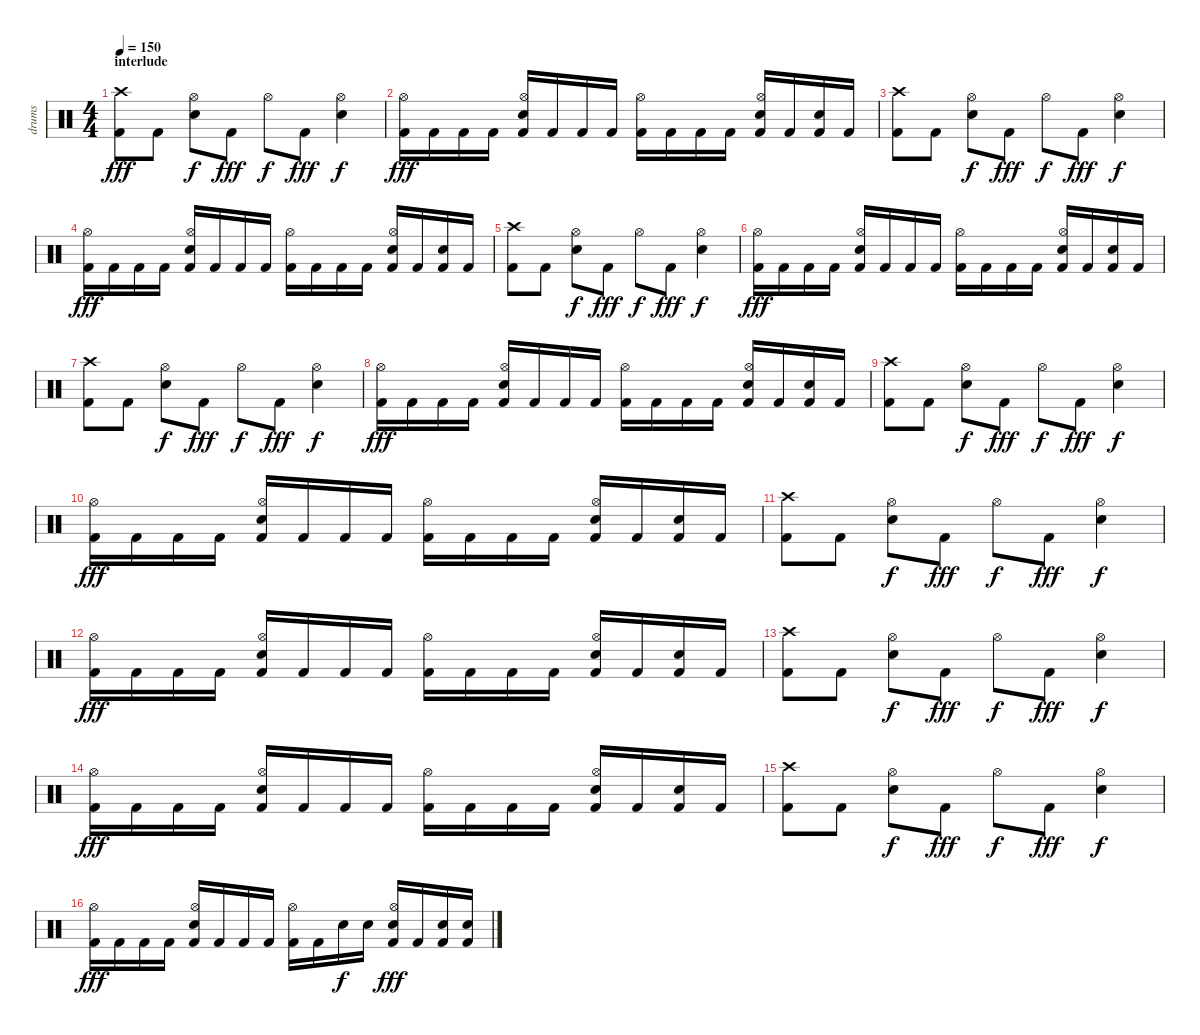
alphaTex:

\track ("drums" "drums") {instrument percussion}
\staff {score}
\articulation defaults
\ts (4 4)
\section ("" "interlude")
\tempo 150
\clef neutral
\ks c
("Crash high (hit)" "Kick (hit) 2").8{dy fff} "Kick (hit) 2".8 ("Hi-Hat (open)" "Snare (hit) 2").8{dy f} "Kick (hit) 2".8{dy fff} "Hi-Hat (open)".8{dy f} "Kick (hit) 2".8{dy fff} ("Hi-Hat (open)" "Snare (hit) 2").4{dy f} |
("Hi-Hat (open)" "Kick (hit) 2").16{dy fff} "Kick (hit) 2".16 "Kick (hit) 2".16 "Kick (hit) 2".16 ("Hi-Hat (open)" "Snare (hit) 2" "Kick (hit) 2").16 "Kick (hit) 2".16 "Kick (hit) 2".16 "Kick (hit) 2".16 ("Hi-Hat (open)" "Kick (hit) 2").16 "Kick (hit) 2".16 "Kick (hit) 2".16 "Kick (hit) 2".16 ("Hi-Hat (open)" "Snare (hit) 2" "Kick (hit) 2").16 "Kick (hit) 2".16 ("Snare (hit) 2" "Kick (hit) 2").16 "Kick (hit) 2".16 |
("Crash high (hit)" "Kick (hit) 2").8 "Kick (hit) 2".8 ("Hi-Hat (open)" "Snare (hit) 2").8{dy f} "Kick (hit) 2".8{dy fff} "Hi-Hat (open)".8{dy f} "Kick (hit) 2".8{dy fff} ("Hi-Hat (open)" "Snare (hit) 2").4{dy f} |
("Hi-Hat (open)" "Kick (hit) 2").16{dy fff} "Kick (hit) 2".16 "Kick (hit) 2".16 "Kick (hit) 2".16 ("Hi-Hat (open)" "Snare (hit) 2" "Kick (hit) 2").16 "Kick (hit) 2".16 "Kick (hit) 2".16 "Kick (hit) 2".16 ("Hi-Hat (open)" "Kick (hit) 2").16 "Kick (hit) 2".16 "Kick (hit) 2".16 "Kick (hit) 2".16 ("Hi-Hat (open)" "Snare (hit) 2" "Kick (hit) 2").16 "Kick (hit) 2".16 ("Snare (hit) 2" "Kick (hit) 2").16 "Kick (hit) 2".16 |
("Crash high (hit)" "Kick (hit) 2").8 "Kick (hit) 2".8 ("Hi-Hat (open)" "Snare (hit) 2").8{dy f} "Kick (hit) 2".8{dy fff} "Hi-Hat (open)".8{dy f} "Kick (hit) 2".8{dy fff} ("Hi-Hat (open)" "Snare (hit) 2").4{dy f} |
("Hi-Hat (open)" "Kick (hit) 2").16{dy fff} "Kick (hit) 2".16 "Kick (hit) 2".16 "Kick (hit) 2".16 ("Hi-Hat (open)" "Snare (hit) 2" "Kick (hit) 2").16 "Kick (hit) 2".16 "Kick (hit) 2".16 "Kick (hit) 2".16 ("Hi-Hat (open)" "Kick (hit) 2").16 "Kick (hit) 2".16 "Kick (hit) 2".16 "Kick (hit) 2".16 ("Hi-Hat (open)" "Snare (hit) 2" "Kick (hit) 2").16 "Kick (hit) 2".16 ("Snare (hit) 2" "Kick (hit) 2").16 "Kick (hit) 2".16 |
("Crash high (hit)" "Kick (hit) 2").8 "Kick (hit) 2".8 ("Hi-Hat (open)" "Snare (hit) 2").8{dy f} "Kick (hit) 2".8{dy fff} "Hi-Hat (open)".8{dy f} "Kick (hit) 2".8{dy fff} ("Hi-Hat (open)" "Snare (hit) 2").4{dy f} |
("Hi-Hat (open)" "Kick (hit) 2").16{dy fff} "Kick (hit) 2".16 "Kick (hit) 2".16 "Kick (hit) 2".16 ("Hi-Hat (open)" "Snare (hit) 2" "Kick (hit) 2").16 "Kick (hit) 2".16 "Kick (hit) 2".16 "Kick (hit) 2".16 ("Hi-Hat (open)" "Kick (hit) 2").16 "Kick (hit) 2".16 "Kick (hit) 2".16 "Kick (hit) 2".16 ("Hi-Hat (open)" "Snare (hit) 2" "Kick (hit) 2").16 "Kick (hit) 2".16 ("Snare (hit) 2" "Kick (hit) 2").16 "Kick (hit) 2".16 |
("Crash high (hit)" "Kick (hit) 2").8 "Kick (hit) 2".8 ("Hi-Hat (open)" "Snare (hit) 2").8{dy f} "Kick (hit) 2".8{dy fff} "Hi-Hat (open)".8{dy f} "Kick (hit) 2".8{dy fff} ("Hi-Hat (open)" "Snare (hit) 2").4{dy f} |
("Hi-Hat (open)" "Kick (hit) 2").16{dy fff} "Kick (hit) 2".16 "Kick (hit) 2".16 "Kick (hit) 2".16 ("Hi-Hat (open)" "Snare (hit) 2" "Kick (hit) 2").16 "Kick (hit) 2".16 "Kick (hit) 2".16 "Kick (hit) 2".16 ("Hi-Hat (open)" "Kick (hit) 2").16 "Kick (hit) 2".16 "Kick (hit) 2".16 "Kick (hit) 2".16 ("Hi-Hat (open)" "Snare (hit) 2" "Kick (hit) 2").16 "Kick (hit) 2".16 ("Snare (hit) 2" "Kick (hit) 2").16 "Kick (hit) 2".16 |
("Crash high (hit)" "Kick (hit) 2").8 "Kick (hit) 2".8 ("Hi-Hat (open)" "Snare (hit) 2").8{dy f} "Kick (hit) 2".8{dy fff} "Hi-Hat (open)".8{dy f} "Kick (hit) 2".8{dy fff} ("Hi-Hat (open)" "Snare (hit) 2").4{dy f} |
("Hi-Hat (open)" "Kick (hit) 2").16{dy fff} "Kick (hit) 2".16 "Kick (hit) 2".16 "Kick (hit) 2".16 ("Hi-Hat (open)" "Snare (hit) 2" "Kick (hit) 2").16 "Kick (hit) 2".16 "Kick (hit) 2".16 "Kick (hit) 2".16 ("Hi-Hat (open)" "Kick (hit) 2").16 "Kick (hit) 2".16 "Kick (hit) 2".16 "Kick (hit) 2".16 ("Hi-Hat (open)" "Snare (hit) 2" "Kick (hit) 2").16 "Kick (hit) 2".16 ("Snare (hit) 2" "Kick (hit) 2").16 "Kick (hit) 2".16 |
("Crash high (hit)" "Kick (hit) 2").8 "Kick (hit) 2".8 ("Hi-Hat (open)" "Snare (hit) 2").8{dy f} "Kick (hit) 2".8{dy fff} "Hi-Hat (open)".8{dy f} "Kick (hit) 2".8{dy fff} ("Hi-Hat (open)" "Snare (hit) 2").4{dy f} |
("Hi-Hat (open)" "Kick (hit) 2").16{dy fff} "Kick (hit) 2".16 "Kick (hit) 2".16 "Kick (hit) 2".16 ("Hi-Hat (open)" "Snare (hit) 2" "Kick (hit) 2").16 "Kick (hit) 2".16 "Kick (hit) 2".16 "Kick (hit) 2".16 ("Hi-Hat (open)" "Kick (hit) 2").16 "Kick (hit) 2".16 "Kick (hit) 2".16 "Kick (hit) 2".16 ("Hi-Hat (open)" "Snare (hit) 2" "Kick (hit) 2").16 "Kick (hit) 2".16 ("Snare (hit) 2" "Kick (hit) 2").16 "Kick (hit) 2".16 |
("Crash high (hit)" "Kick (hit) 2").8 "Kick (hit) 2".8 ("Hi-Hat (open)" "Snare (hit) 2").8{dy f} "Kick (hit) 2".8{dy fff} "Hi-Hat (open)".8{dy f} "Kick (hit) 2".8{dy fff} ("Hi-Hat (open)" "Snare (hit) 2").4{dy f} |
("Hi-Hat (open)" "Kick (hit) 2").16{dy fff} "Kick (hit) 2".16 "Kick (hit) 2".16 "Kick (hit) 2".16 ("Hi-Hat (open)" "Snare (hit) 2" "Kick (hit) 2").16 "Kick (hit) 2".16 "Kick (hit) 2".16 "Kick (hit) 2".16 ("Hi-Hat (open)" "Kick (hit) 2").16 "Kick (hit) 2".16 "Snare (hit) 2".16{dy f} "Snare (hit) 2".16 ("Hi-Hat (open)" "Snare (hit) 2" "Kick (hit) 2").16{dy fff} "Kick (hit) 2".16 ("Snare (hit) 2" "Kick (hit) 2").16 ("Snare (hit) 2" "Kick (hit) 2").16
